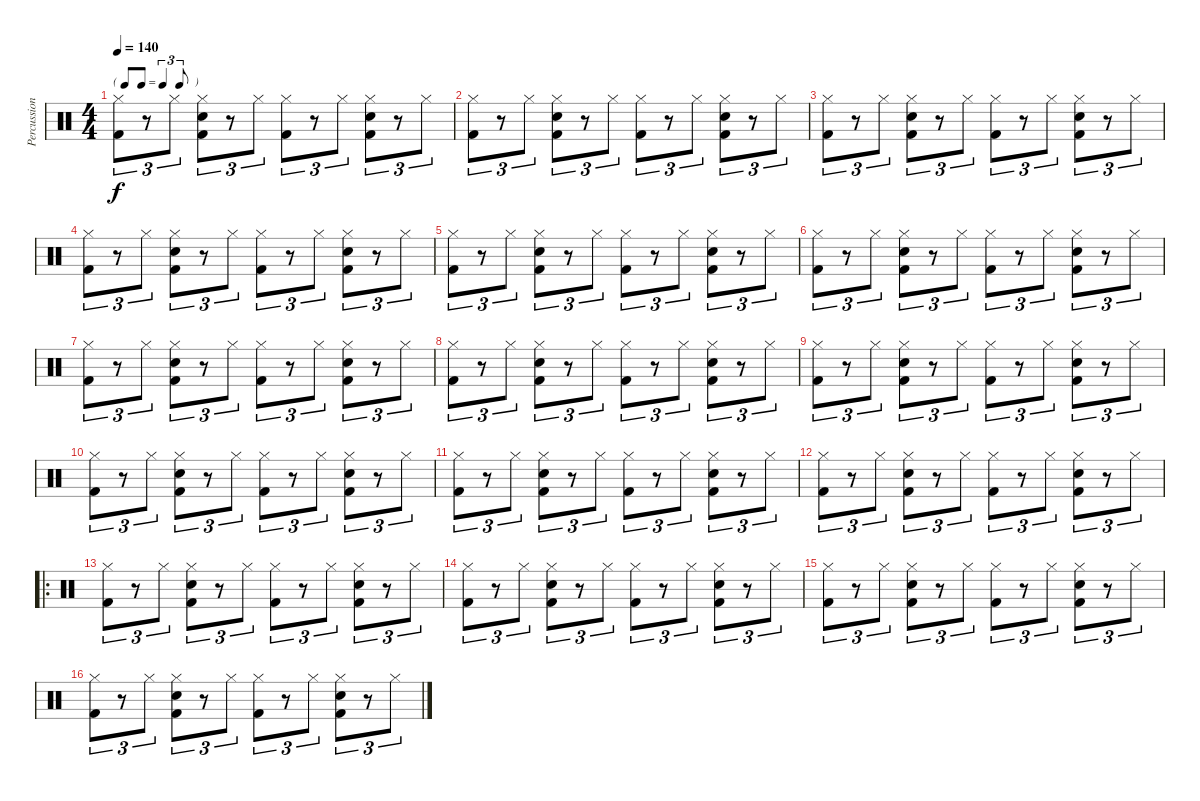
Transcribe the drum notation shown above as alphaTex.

\track ("Percussion" "Percussion") {instrument percussion}
\staff {score}
\articulation defaults
\ts (4 4)
\tf triplet8th
\tempo 140
\clef neutral
\ks c
("Hi-Hat (closed)" "Kick (hit) 2").8{tu (3 2) dy f} r.8{tu (3 2)} "Hi-Hat (closed)".8{tu (3 2)} ("Hi-Hat (closed)" "Snare (hit) 2" "Kick (hit) 2").8{tu (3 2)} r.8{tu (3 2)} "Hi-Hat (closed)".8{tu (3 2)} ("Hi-Hat (closed)" "Kick (hit) 2").8{tu (3 2)} r.8{tu (3 2)} "Hi-Hat (closed)".8{tu (3 2)} ("Hi-Hat (closed)" "Snare (hit) 2" "Kick (hit) 2").8{tu (3 2)} r.8{tu (3 2)} "Hi-Hat (closed)".8{tu (3 2)} |
("Hi-Hat (closed)" "Kick (hit) 2").8{tu (3 2)} r.8{tu (3 2)} "Hi-Hat (closed)".8{tu (3 2)} ("Hi-Hat (closed)" "Snare (hit) 2" "Kick (hit) 2").8{tu (3 2)} r.8{tu (3 2)} "Hi-Hat (closed)".8{tu (3 2)} ("Hi-Hat (closed)" "Kick (hit) 2").8{tu (3 2)} r.8{tu (3 2)} "Hi-Hat (closed)".8{tu (3 2)} ("Hi-Hat (closed)" "Snare (hit) 2" "Kick (hit) 2").8{tu (3 2)} r.8{tu (3 2)} "Hi-Hat (closed)".8{tu (3 2)} |
("Hi-Hat (closed)" "Kick (hit) 2").8{tu (3 2)} r.8{tu (3 2)} "Hi-Hat (closed)".8{tu (3 2)} ("Hi-Hat (closed)" "Snare (hit) 2" "Kick (hit) 2").8{tu (3 2)} r.8{tu (3 2)} "Hi-Hat (closed)".8{tu (3 2)} ("Hi-Hat (closed)" "Kick (hit) 2").8{tu (3 2)} r.8{tu (3 2)} "Hi-Hat (closed)".8{tu (3 2)} ("Hi-Hat (closed)" "Snare (hit) 2" "Kick (hit) 2").8{tu (3 2)} r.8{tu (3 2)} "Hi-Hat (closed)".8{tu (3 2)} |
("Hi-Hat (closed)" "Kick (hit) 2").8{tu (3 2)} r.8{tu (3 2)} "Hi-Hat (closed)".8{tu (3 2)} ("Hi-Hat (closed)" "Snare (hit) 2" "Kick (hit) 2").8{tu (3 2)} r.8{tu (3 2)} "Hi-Hat (closed)".8{tu (3 2)} ("Hi-Hat (closed)" "Kick (hit) 2").8{tu (3 2)} r.8{tu (3 2)} "Hi-Hat (closed)".8{tu (3 2)} ("Hi-Hat (closed)" "Snare (hit) 2" "Kick (hit) 2").8{tu (3 2)} r.8{tu (3 2)} "Hi-Hat (closed)".8{tu (3 2)} |
("Hi-Hat (closed)" "Kick (hit) 2").8{tu (3 2)} r.8{tu (3 2)} "Hi-Hat (closed)".8{tu (3 2)} ("Hi-Hat (closed)" "Snare (hit) 2" "Kick (hit) 2").8{tu (3 2)} r.8{tu (3 2)} "Hi-Hat (closed)".8{tu (3 2)} ("Hi-Hat (closed)" "Kick (hit) 2").8{tu (3 2)} r.8{tu (3 2)} "Hi-Hat (closed)".8{tu (3 2)} ("Hi-Hat (closed)" "Snare (hit) 2" "Kick (hit) 2").8{tu (3 2)} r.8{tu (3 2)} "Hi-Hat (closed)".8{tu (3 2)} |
("Hi-Hat (closed)" "Kick (hit) 2").8{tu (3 2)} r.8{tu (3 2)} "Hi-Hat (closed)".8{tu (3 2)} ("Hi-Hat (closed)" "Snare (hit) 2" "Kick (hit) 2").8{tu (3 2)} r.8{tu (3 2)} "Hi-Hat (closed)".8{tu (3 2)} ("Hi-Hat (closed)" "Kick (hit) 2").8{tu (3 2)} r.8{tu (3 2)} "Hi-Hat (closed)".8{tu (3 2)} ("Hi-Hat (closed)" "Snare (hit) 2" "Kick (hit) 2").8{tu (3 2)} r.8{tu (3 2)} "Hi-Hat (closed)".8{tu (3 2)} |
("Hi-Hat (closed)" "Kick (hit) 2").8{tu (3 2)} r.8{tu (3 2)} "Hi-Hat (closed)".8{tu (3 2)} ("Hi-Hat (closed)" "Snare (hit) 2" "Kick (hit) 2").8{tu (3 2)} r.8{tu (3 2)} "Hi-Hat (closed)".8{tu (3 2)} ("Hi-Hat (closed)" "Kick (hit) 2").8{tu (3 2)} r.8{tu (3 2)} "Hi-Hat (closed)".8{tu (3 2)} ("Hi-Hat (closed)" "Snare (hit) 2" "Kick (hit) 2").8{tu (3 2)} r.8{tu (3 2)} "Hi-Hat (closed)".8{tu (3 2)} |
("Hi-Hat (closed)" "Kick (hit) 2").8{tu (3 2)} r.8{tu (3 2)} "Hi-Hat (closed)".8{tu (3 2)} ("Hi-Hat (closed)" "Snare (hit) 2" "Kick (hit) 2").8{tu (3 2)} r.8{tu (3 2)} "Hi-Hat (closed)".8{tu (3 2)} ("Hi-Hat (closed)" "Kick (hit) 2").8{tu (3 2)} r.8{tu (3 2)} "Hi-Hat (closed)".8{tu (3 2)} ("Hi-Hat (closed)" "Snare (hit) 2" "Kick (hit) 2").8{tu (3 2)} r.8{tu (3 2)} "Hi-Hat (closed)".8{tu (3 2)} |
("Hi-Hat (closed)" "Kick (hit) 2").8{tu (3 2)} r.8{tu (3 2)} "Hi-Hat (closed)".8{tu (3 2)} ("Hi-Hat (closed)" "Snare (hit) 2" "Kick (hit) 2").8{tu (3 2)} r.8{tu (3 2)} "Hi-Hat (closed)".8{tu (3 2)} ("Hi-Hat (closed)" "Kick (hit) 2").8{tu (3 2)} r.8{tu (3 2)} "Hi-Hat (closed)".8{tu (3 2)} ("Hi-Hat (closed)" "Snare (hit) 2" "Kick (hit) 2").8{tu (3 2)} r.8{tu (3 2)} "Hi-Hat (closed)".8{tu (3 2)} |
("Hi-Hat (closed)" "Kick (hit) 2").8{tu (3 2)} r.8{tu (3 2)} "Hi-Hat (closed)".8{tu (3 2)} ("Hi-Hat (closed)" "Snare (hit) 2" "Kick (hit) 2").8{tu (3 2)} r.8{tu (3 2)} "Hi-Hat (closed)".8{tu (3 2)} ("Hi-Hat (closed)" "Kick (hit) 2").8{tu (3 2)} r.8{tu (3 2)} "Hi-Hat (closed)".8{tu (3 2)} ("Hi-Hat (closed)" "Snare (hit) 2" "Kick (hit) 2").8{tu (3 2)} r.8{tu (3 2)} "Hi-Hat (closed)".8{tu (3 2)} |
("Hi-Hat (closed)" "Kick (hit) 2").8{tu (3 2)} r.8{tu (3 2)} "Hi-Hat (closed)".8{tu (3 2)} ("Hi-Hat (closed)" "Snare (hit) 2" "Kick (hit) 2").8{tu (3 2)} r.8{tu (3 2)} "Hi-Hat (closed)".8{tu (3 2)} ("Hi-Hat (closed)" "Kick (hit) 2").8{tu (3 2)} r.8{tu (3 2)} "Hi-Hat (closed)".8{tu (3 2)} ("Hi-Hat (closed)" "Snare (hit) 2" "Kick (hit) 2").8{tu (3 2)} r.8{tu (3 2)} "Hi-Hat (closed)".8{tu (3 2)} |
("Hi-Hat (closed)" "Kick (hit) 2").8{tu (3 2)} r.8{tu (3 2)} "Hi-Hat (closed)".8{tu (3 2)} ("Hi-Hat (closed)" "Snare (hit) 2" "Kick (hit) 2").8{tu (3 2)} r.8{tu (3 2)} "Hi-Hat (closed)".8{tu (3 2)} ("Hi-Hat (closed)" "Kick (hit) 2").8{tu (3 2)} r.8{tu (3 2)} "Hi-Hat (closed)".8{tu (3 2)} ("Hi-Hat (closed)" "Snare (hit) 2" "Kick (hit) 2").8{tu (3 2)} r.8{tu (3 2)} "Hi-Hat (closed)".8{tu (3 2)} |
\ro
("Hi-Hat (closed)" "Kick (hit) 2").8{tu (3 2)} r.8{tu (3 2)} "Hi-Hat (closed)".8{tu (3 2)} ("Hi-Hat (closed)" "Snare (hit) 2" "Kick (hit) 2").8{tu (3 2)} r.8{tu (3 2)} "Hi-Hat (closed)".8{tu (3 2)} ("Hi-Hat (closed)" "Kick (hit) 2").8{tu (3 2)} r.8{tu (3 2)} "Hi-Hat (closed)".8{tu (3 2)} ("Hi-Hat (closed)" "Snare (hit) 2" "Kick (hit) 2").8{tu (3 2)} r.8{tu (3 2)} "Hi-Hat (closed)".8{tu (3 2)} |
("Hi-Hat (closed)" "Kick (hit) 2").8{tu (3 2)} r.8{tu (3 2)} "Hi-Hat (closed)".8{tu (3 2)} ("Hi-Hat (closed)" "Snare (hit) 2" "Kick (hit) 2").8{tu (3 2)} r.8{tu (3 2)} "Hi-Hat (closed)".8{tu (3 2)} ("Hi-Hat (closed)" "Kick (hit) 2").8{tu (3 2)} r.8{tu (3 2)} "Hi-Hat (closed)".8{tu (3 2)} ("Hi-Hat (closed)" "Snare (hit) 2" "Kick (hit) 2").8{tu (3 2)} r.8{tu (3 2)} "Hi-Hat (closed)".8{tu (3 2)} |
("Hi-Hat (closed)" "Kick (hit) 2").8{tu (3 2)} r.8{tu (3 2)} "Hi-Hat (closed)".8{tu (3 2)} ("Hi-Hat (closed)" "Snare (hit) 2" "Kick (hit) 2").8{tu (3 2)} r.8{tu (3 2)} "Hi-Hat (closed)".8{tu (3 2)} ("Hi-Hat (closed)" "Kick (hit) 2").8{tu (3 2)} r.8{tu (3 2)} "Hi-Hat (closed)".8{tu (3 2)} ("Hi-Hat (closed)" "Snare (hit) 2" "Kick (hit) 2").8{tu (3 2)} r.8{tu (3 2)} "Hi-Hat (closed)".8{tu (3 2)} |
("Hi-Hat (closed)" "Kick (hit) 2").8{tu (3 2)} r.8{tu (3 2)} "Hi-Hat (closed)".8{tu (3 2)} ("Hi-Hat (closed)" "Snare (hit) 2" "Kick (hit) 2").8{tu (3 2)} r.8{tu (3 2)} "Hi-Hat (closed)".8{tu (3 2)} ("Hi-Hat (closed)" "Kick (hit) 2").8{tu (3 2)} r.8{tu (3 2)} "Hi-Hat (closed)".8{tu (3 2)} ("Hi-Hat (closed)" "Snare (hit) 2" "Kick (hit) 2").8{tu (3 2)} r.8{tu (3 2)} "Hi-Hat (closed)".8{tu (3 2)}
